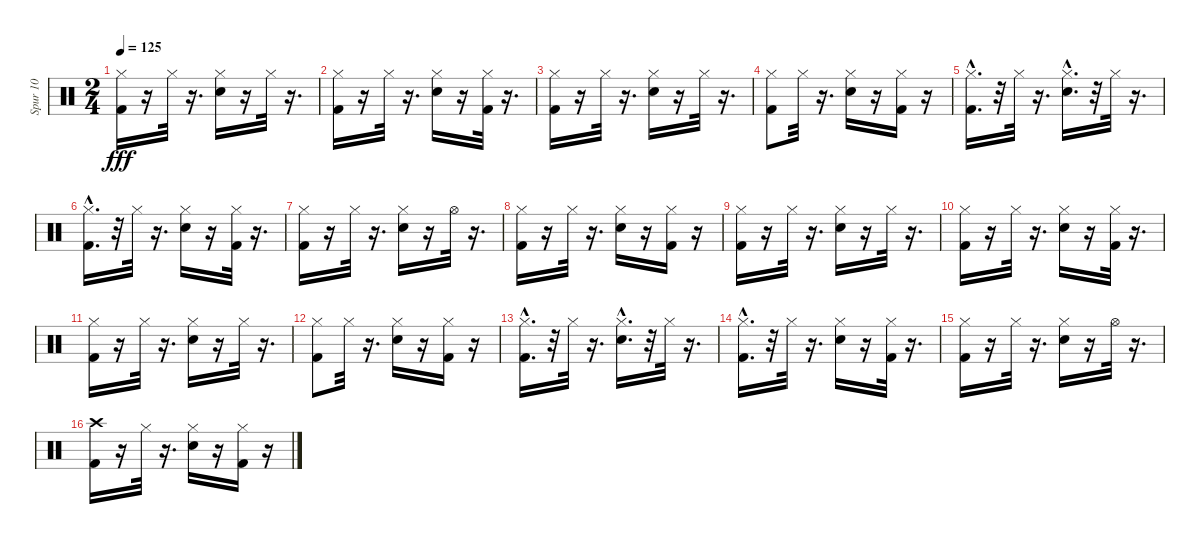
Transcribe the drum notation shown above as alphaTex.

\track ("Spur 10" "Spur 10") {instrument percussion}
\staff {score}
\articulation defaults
\ts (2 4)
\tempo 125
\clef neutral
\ks c
("Kick (hit) 2" "Hi-Hat (closed)").16{dy fff} r.16 "Hi-Hat (closed)".32 r.16{d} ("Snare (hit) 2" "Hi-Hat (closed)").16 r.16 "Hi-Hat (closed)".32 r.16{d} |
("Kick (hit) 2" "Hi-Hat (closed)").16 r.16 "Hi-Hat (closed)".32 r.16{d} ("Snare (hit) 2" "Hi-Hat (closed)").16 r.16 ("Kick (hit) 2" "Hi-Hat (closed)").32 r.16{d} |
("Kick (hit) 2" "Hi-Hat (closed)").16 r.16 "Hi-Hat (closed)".32 r.16{d} ("Snare (hit) 2" "Hi-Hat (closed)").16 r.16 "Hi-Hat (closed)".32 r.16{d} |
("Kick (hit) 2" "Hi-Hat (closed)").8 "Hi-Hat (closed)".32 r.16{d} ("Snare (hit) 2" "Hi-Hat (closed)").16 r.16 ("Kick (hit) 2" "Hi-Hat (closed)").16 r.16 |
("Kick (hit) 2"{hac} "Hi-Hat (closed)").16{d} r.32 "Hi-Hat (closed)".32 r.16{d} ("Snare (hit) 2"{hac} "Hi-Hat (closed)").16{d} r.32 "Hi-Hat (closed)".32 r.16{d} |
("Kick (hit) 2"{hac} "Hi-Hat (closed)").16{d} r.32 "Hi-Hat (closed)".32 r.16{d} ("Snare (hit) 2" "Hi-Hat (closed)").16 r.16 ("Kick (hit) 2" "Hi-Hat (closed)").32 r.16{d} |
("Kick (hit) 2" "Hi-Hat (closed)").16 r.16 "Hi-Hat (closed)".32 r.16{d} ("Snare (hit) 2" "Hi-Hat (closed)").16 r.16 "Hi-Hat (open)".32 r.16{d} |
("Kick (hit) 2" "Hi-Hat (closed)").16 r.16 "Hi-Hat (closed)".32 r.16{d} ("Snare (hit) 2" "Hi-Hat (closed)").16 r.16 ("Kick (hit) 2" "Hi-Hat (closed)").16 r.16 |
("Kick (hit) 2" "Hi-Hat (closed)").16 r.16 "Hi-Hat (closed)".32 r.16{d} ("Snare (hit) 2" "Hi-Hat (closed)").16 r.16 "Hi-Hat (closed)".32 r.16{d} |
("Kick (hit) 2" "Hi-Hat (closed)").16 r.16 "Hi-Hat (closed)".32 r.16{d} ("Snare (hit) 2" "Hi-Hat (closed)").16 r.16 ("Kick (hit) 2" "Hi-Hat (closed)").32 r.16{d} |
("Kick (hit) 2" "Hi-Hat (closed)").16 r.16 "Hi-Hat (closed)".32 r.16{d} ("Snare (hit) 2" "Hi-Hat (closed)").16 r.16 "Hi-Hat (closed)".32 r.16{d} |
("Kick (hit) 2" "Hi-Hat (closed)").8 "Hi-Hat (closed)".32 r.16{d} ("Snare (hit) 2" "Hi-Hat (closed)").16 r.16 ("Kick (hit) 2" "Hi-Hat (closed)").16 r.16 |
("Kick (hit) 2"{hac} "Hi-Hat (closed)").16{d} r.32 "Hi-Hat (closed)".32 r.16{d} ("Snare (hit) 2"{hac} "Hi-Hat (closed)").16{d} r.32 "Hi-Hat (closed)".32 r.16{d} |
("Kick (hit) 2"{hac} "Hi-Hat (closed)").16{d} r.32 "Hi-Hat (closed)".32 r.16{d} ("Snare (hit) 2" "Hi-Hat (closed)").16 r.16 ("Kick (hit) 2" "Hi-Hat (closed)").32 r.16{d} |
("Kick (hit) 2" "Hi-Hat (closed)").16 r.16 "Hi-Hat (closed)".32 r.16{d} ("Snare (hit) 2" "Hi-Hat (closed)").16 r.16 "Hi-Hat (open)".32 r.16{d} |
("Kick (hit) 2" "Crash high (hit)").16 r.16 "Hi-Hat (closed)".32 r.16{d} ("Snare (hit) 2" "Hi-Hat (closed)").16 r.16 ("Kick (hit) 2" "Hi-Hat (closed)").16 r.16
